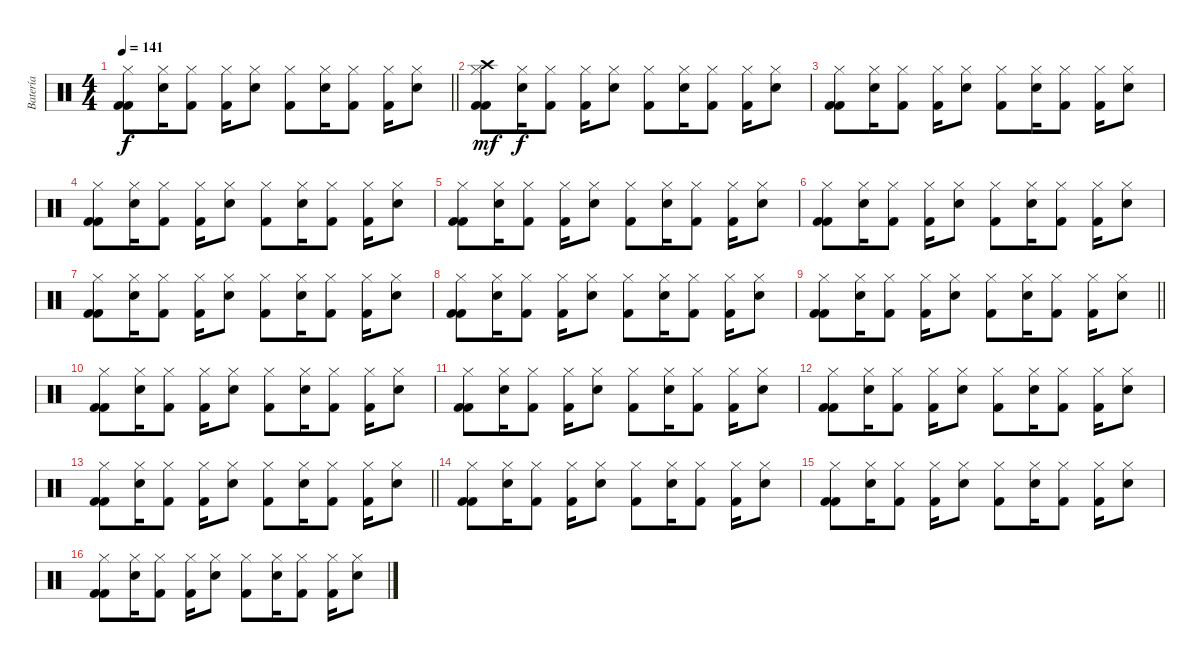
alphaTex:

\track ("Batería" "Batería") {instrument percussion}
\staff {score}
\articulation defaults
\ts (4 4)
\tempo 141
\clef neutral
\barLineRight lightlight
\ks c
("Hi-Hat (closed)" "Kick (hit) 2" "Kick (hit) 2").8{dy f} ("Hi-Hat (closed)" "Electric Snare (hit)").16 ("Hi-Hat (closed)" "Kick (hit) 2").8 ("Hi-Hat (closed)" "Kick (hit) 2").16 ("Hi-Hat (closed)" "Electric Snare (hit)").8 ("Hi-Hat (closed)" "Kick (hit) 2").8 ("Hi-Hat (closed)" "Electric Snare (hit)").16 ("Hi-Hat (closed)" "Kick (hit) 2").8 ("Hi-Hat (closed)" "Kick (hit) 2").16 ("Hi-Hat (closed)" "Electric Snare (hit)").8 |
\section ("" "")
("Crash high (hit)" "Hi-Hat (closed)" "Kick (hit) 2" "Kick (hit) 2").8{dy mf} ("Hi-Hat (closed)" "Electric Snare (hit)").16{dy f} ("Hi-Hat (closed)" "Kick (hit) 2").8 ("Hi-Hat (closed)" "Kick (hit) 2").16 ("Hi-Hat (closed)" "Electric Snare (hit)").8 ("Hi-Hat (closed)" "Kick (hit) 2").8 ("Hi-Hat (closed)" "Electric Snare (hit)").16 ("Hi-Hat (closed)" "Kick (hit) 2").8 ("Hi-Hat (closed)" "Kick (hit) 2").16 ("Hi-Hat (closed)" "Electric Snare (hit)").8 |
("Hi-Hat (closed)" "Kick (hit) 2" "Kick (hit) 2").8 ("Hi-Hat (closed)" "Electric Snare (hit)").16 ("Hi-Hat (closed)" "Kick (hit) 2").8 ("Hi-Hat (closed)" "Kick (hit) 2").16 ("Hi-Hat (closed)" "Electric Snare (hit)").8 ("Hi-Hat (closed)" "Kick (hit) 2").8 ("Hi-Hat (closed)" "Electric Snare (hit)").16 ("Hi-Hat (closed)" "Kick (hit) 2").8 ("Hi-Hat (closed)" "Kick (hit) 2").16 ("Hi-Hat (closed)" "Electric Snare (hit)").8 |
("Hi-Hat (closed)" "Kick (hit) 2" "Kick (hit) 2").8 ("Hi-Hat (closed)" "Electric Snare (hit)").16 ("Hi-Hat (closed)" "Kick (hit) 2").8 ("Hi-Hat (closed)" "Kick (hit) 2").16 ("Hi-Hat (closed)" "Electric Snare (hit)").8 ("Hi-Hat (closed)" "Kick (hit) 2").8 ("Hi-Hat (closed)" "Electric Snare (hit)").16 ("Hi-Hat (closed)" "Kick (hit) 2").8 ("Hi-Hat (closed)" "Kick (hit) 2").16 ("Hi-Hat (closed)" "Electric Snare (hit)").8 |
("Hi-Hat (closed)" "Kick (hit) 2" "Kick (hit) 2").8 ("Hi-Hat (closed)" "Electric Snare (hit)").16 ("Hi-Hat (closed)" "Kick (hit) 2").8 ("Hi-Hat (closed)" "Kick (hit) 2").16 ("Hi-Hat (closed)" "Electric Snare (hit)").8 ("Hi-Hat (closed)" "Kick (hit) 2").8 ("Hi-Hat (closed)" "Electric Snare (hit)").16 ("Hi-Hat (closed)" "Kick (hit) 2").8 ("Hi-Hat (closed)" "Kick (hit) 2").16 ("Hi-Hat (closed)" "Electric Snare (hit)").8 |
("Hi-Hat (closed)" "Kick (hit) 2" "Kick (hit) 2").8 ("Hi-Hat (closed)" "Electric Snare (hit)").16 ("Hi-Hat (closed)" "Kick (hit) 2").8 ("Hi-Hat (closed)" "Kick (hit) 2").16 ("Hi-Hat (closed)" "Electric Snare (hit)").8 ("Hi-Hat (closed)" "Kick (hit) 2").8 ("Hi-Hat (closed)" "Electric Snare (hit)").16 ("Hi-Hat (closed)" "Kick (hit) 2").8 ("Hi-Hat (closed)" "Kick (hit) 2").16 ("Hi-Hat (closed)" "Electric Snare (hit)").8 |
("Hi-Hat (closed)" "Kick (hit) 2" "Kick (hit) 2").8 ("Hi-Hat (closed)" "Electric Snare (hit)").16 ("Hi-Hat (closed)" "Kick (hit) 2").8 ("Hi-Hat (closed)" "Kick (hit) 2").16 ("Hi-Hat (closed)" "Electric Snare (hit)").8 ("Hi-Hat (closed)" "Kick (hit) 2").8 ("Hi-Hat (closed)" "Electric Snare (hit)").16 ("Hi-Hat (closed)" "Kick (hit) 2").8 ("Hi-Hat (closed)" "Kick (hit) 2").16 ("Hi-Hat (closed)" "Electric Snare (hit)").8 |
("Hi-Hat (closed)" "Kick (hit) 2" "Kick (hit) 2").8 ("Hi-Hat (closed)" "Electric Snare (hit)").16 ("Hi-Hat (closed)" "Kick (hit) 2").8 ("Hi-Hat (closed)" "Kick (hit) 2").16 ("Hi-Hat (closed)" "Electric Snare (hit)").8 ("Hi-Hat (closed)" "Kick (hit) 2").8 ("Hi-Hat (closed)" "Electric Snare (hit)").16 ("Hi-Hat (closed)" "Kick (hit) 2").8 ("Hi-Hat (closed)" "Kick (hit) 2").16 ("Hi-Hat (closed)" "Electric Snare (hit)").8 |
\barLineRight lightlight
("Hi-Hat (closed)" "Kick (hit) 2" "Kick (hit) 2").8 ("Hi-Hat (closed)" "Electric Snare (hit)").16 ("Hi-Hat (closed)" "Kick (hit) 2").8 ("Hi-Hat (closed)" "Kick (hit) 2").16 ("Hi-Hat (closed)" "Electric Snare (hit)").8 ("Hi-Hat (closed)" "Kick (hit) 2").8 ("Hi-Hat (closed)" "Electric Snare (hit)").16 ("Hi-Hat (closed)" "Kick (hit) 2").8 ("Hi-Hat (closed)" "Kick (hit) 2").16 ("Hi-Hat (closed)" "Electric Snare (hit)").8 |
\section ("" "")
("Hi-Hat (closed)" "Kick (hit) 2" "Kick (hit) 2").8 ("Hi-Hat (closed)" "Electric Snare (hit)").16 ("Hi-Hat (closed)" "Kick (hit) 2").8 ("Hi-Hat (closed)" "Kick (hit) 2").16 ("Hi-Hat (closed)" "Electric Snare (hit)").8 ("Hi-Hat (closed)" "Kick (hit) 2").8 ("Hi-Hat (closed)" "Electric Snare (hit)").16 ("Hi-Hat (closed)" "Kick (hit) 2").8 ("Hi-Hat (closed)" "Kick (hit) 2").16 ("Hi-Hat (closed)" "Electric Snare (hit)").8 |
("Hi-Hat (closed)" "Kick (hit) 2" "Kick (hit) 2").8 ("Hi-Hat (closed)" "Electric Snare (hit)").16 ("Hi-Hat (closed)" "Kick (hit) 2").8 ("Hi-Hat (closed)" "Kick (hit) 2").16 ("Hi-Hat (closed)" "Electric Snare (hit)").8 ("Hi-Hat (closed)" "Kick (hit) 2").8 ("Hi-Hat (closed)" "Electric Snare (hit)").16 ("Hi-Hat (closed)" "Kick (hit) 2").8 ("Hi-Hat (closed)" "Kick (hit) 2").16 ("Hi-Hat (closed)" "Electric Snare (hit)").8 |
("Hi-Hat (closed)" "Kick (hit) 2" "Kick (hit) 2").8 ("Hi-Hat (closed)" "Electric Snare (hit)").16 ("Hi-Hat (closed)" "Kick (hit) 2").8 ("Hi-Hat (closed)" "Kick (hit) 2").16 ("Hi-Hat (closed)" "Electric Snare (hit)").8 ("Hi-Hat (closed)" "Kick (hit) 2").8 ("Hi-Hat (closed)" "Electric Snare (hit)").16 ("Hi-Hat (closed)" "Kick (hit) 2").8 ("Hi-Hat (closed)" "Kick (hit) 2").16 ("Hi-Hat (closed)" "Electric Snare (hit)").8 |
\barLineRight lightlight
("Hi-Hat (closed)" "Kick (hit) 2" "Kick (hit) 2").8 ("Hi-Hat (closed)" "Electric Snare (hit)").16 ("Hi-Hat (closed)" "Kick (hit) 2").8 ("Hi-Hat (closed)" "Kick (hit) 2").16 ("Hi-Hat (closed)" "Electric Snare (hit)").8 ("Hi-Hat (closed)" "Kick (hit) 2").8 ("Hi-Hat (closed)" "Electric Snare (hit)").16 ("Hi-Hat (closed)" "Kick (hit) 2").8 ("Hi-Hat (closed)" "Kick (hit) 2").16 ("Hi-Hat (closed)" "Electric Snare (hit)").8 |
\section ("" "")
("Hi-Hat (closed)" "Kick (hit) 2" "Kick (hit) 2").8 ("Hi-Hat (closed)" "Electric Snare (hit)").16 ("Hi-Hat (closed)" "Kick (hit) 2").8 ("Hi-Hat (closed)" "Kick (hit) 2").16 ("Hi-Hat (closed)" "Electric Snare (hit)").8 ("Hi-Hat (closed)" "Kick (hit) 2").8 ("Hi-Hat (closed)" "Electric Snare (hit)").16 ("Hi-Hat (closed)" "Kick (hit) 2").8 ("Hi-Hat (closed)" "Kick (hit) 2").16 ("Hi-Hat (closed)" "Electric Snare (hit)").8 |
("Hi-Hat (closed)" "Kick (hit) 2" "Kick (hit) 2").8 ("Hi-Hat (closed)" "Electric Snare (hit)").16 ("Hi-Hat (closed)" "Kick (hit) 2").8 ("Hi-Hat (closed)" "Kick (hit) 2").16 ("Hi-Hat (closed)" "Electric Snare (hit)").8 ("Hi-Hat (closed)" "Kick (hit) 2").8 ("Hi-Hat (closed)" "Electric Snare (hit)").16 ("Hi-Hat (closed)" "Kick (hit) 2").8 ("Hi-Hat (closed)" "Kick (hit) 2").16 ("Hi-Hat (closed)" "Electric Snare (hit)").8 |
("Hi-Hat (closed)" "Kick (hit) 2" "Kick (hit) 2").8 ("Hi-Hat (closed)" "Electric Snare (hit)").16 ("Hi-Hat (closed)" "Kick (hit) 2").8 ("Hi-Hat (closed)" "Kick (hit) 2").16 ("Hi-Hat (closed)" "Electric Snare (hit)").8 ("Hi-Hat (closed)" "Kick (hit) 2").8 ("Hi-Hat (closed)" "Electric Snare (hit)").16 ("Hi-Hat (closed)" "Kick (hit) 2").8 ("Hi-Hat (closed)" "Kick (hit) 2").16 ("Hi-Hat (closed)" "Electric Snare (hit)").8
